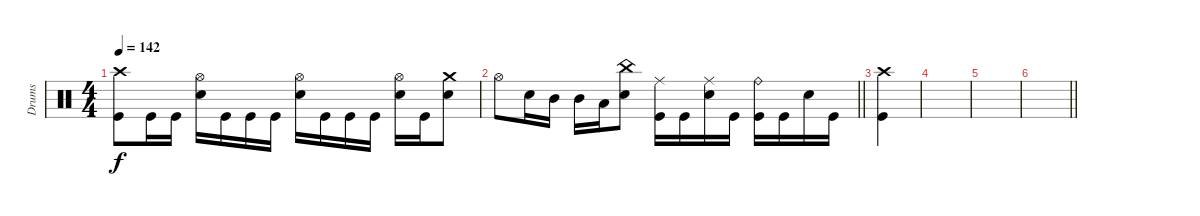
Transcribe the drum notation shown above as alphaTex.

\track ("Drums" "Drums") {instrument percussion}
\staff
\articulation defaults
\ts (4 4)
\tempo 142
\clef neutral
\ks c
("Crash high (hit)" "Kick (hit)").8{dy f} "Kick (hit)".16 "Kick (hit)".16 ("Hi-Hat (open)" "Electric Snare (hit)").16 "Kick (hit)".16 "Kick (hit)".16 "Kick (hit)".16 ("Hi-Hat (open)" "Electric Snare (hit)").16 "Kick (hit)".16 "Kick (hit)".16 "Kick (hit)".16 ("Hi-Hat (open)" "Electric Snare (hit)").16 "Kick (hit)".16 ("Crash medium (hit)" "Electric Snare (hit)").8 |
\barLineRight lightlight "Hi-Hat (open)".8 "Electric Snare (hit)".16 "Mid Tom (hit)".16 "Mid Tom (hit)".16 "Low Tom (hit)".16
("China (hit)" "Electric Snare (hit)").8 ("Ride (middle)" "Kick (hit)").16 "Kick (hit)".16 ("Ride (middle)" "Electric Snare (hit)").16 "Kick (hit)".16 ("Ride (bell)" "Kick (hit)").16 "Kick (hit)".16 "Electric Snare (hit)".16 "Kick (hit)".16 |
("Crash high (hit)" "Kick (hit)").4 |
|
|
\barLineRight lightlight
